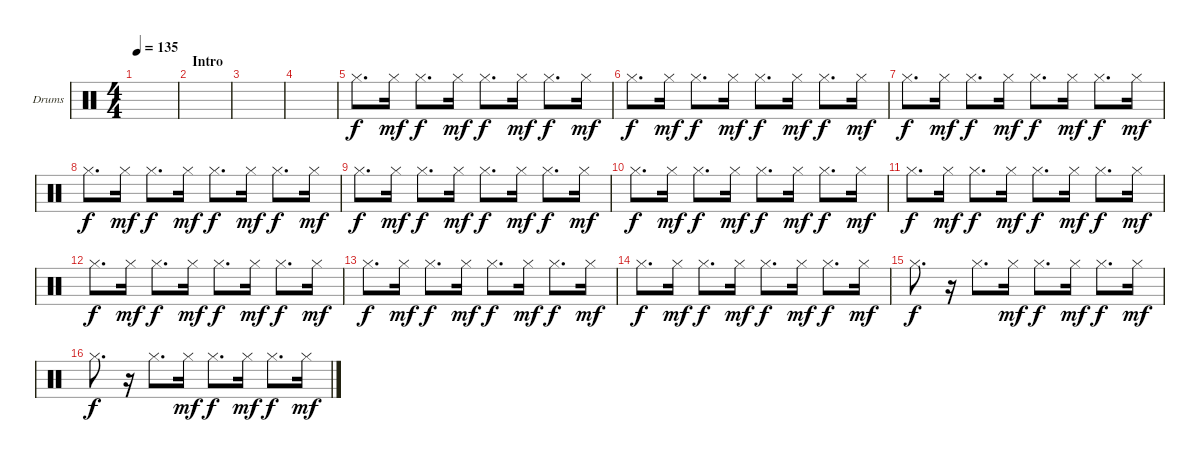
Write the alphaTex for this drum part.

\bracketExtendMode groupsimilarinstruments
\firstSystemTrackNameOrientation horizontal
\otherSystemsTrackNameOrientation horizontal
\track ("HH" "Drums") {instrument percussion}
\staff {score}
\articulation defaults
\ts (4 4)
\tempo 135
\clef neutral
\ks c
|
\section ("" "Intro")
|
|
|
"Hi-Hat (closed)".8{d} "Hi-Hat (closed)".16{dy mf} "Hi-Hat (closed)".8{d dy f} "Hi-Hat (closed)".16{dy mf} "Hi-Hat (closed)".8{d dy f} "Hi-Hat (closed)".16{dy mf} "Hi-Hat (closed)".8{d dy f} "Hi-Hat (closed)".16{dy mf} |
"Hi-Hat (closed)".8{d dy f} "Hi-Hat (closed)".16{dy mf} "Hi-Hat (closed)".8{d dy f} "Hi-Hat (closed)".16{dy mf} "Hi-Hat (closed)".8{d dy f} "Hi-Hat (closed)".16{dy mf} "Hi-Hat (closed)".8{d dy f} "Hi-Hat (closed)".16{dy mf} |
"Hi-Hat (closed)".8{d dy f} "Hi-Hat (closed)".16{dy mf} "Hi-Hat (closed)".8{d dy f} "Hi-Hat (closed)".16{dy mf} "Hi-Hat (closed)".8{d dy f} "Hi-Hat (closed)".16{dy mf} "Hi-Hat (closed)".8{d dy f} "Hi-Hat (closed)".16{dy mf} |
"Hi-Hat (closed)".8{d dy f} "Hi-Hat (closed)".16{dy mf} "Hi-Hat (closed)".8{d dy f} "Hi-Hat (closed)".16{dy mf} "Hi-Hat (closed)".8{d dy f} "Hi-Hat (closed)".16{dy mf} "Hi-Hat (closed)".8{d dy f} "Hi-Hat (closed)".16{dy mf} |
"Hi-Hat (closed)".8{d dy f} "Hi-Hat (closed)".16{dy mf} "Hi-Hat (closed)".8{d dy f} "Hi-Hat (closed)".16{dy mf} "Hi-Hat (closed)".8{d dy f} "Hi-Hat (closed)".16{dy mf} "Hi-Hat (closed)".8{d dy f} "Hi-Hat (closed)".16{dy mf} |
"Hi-Hat (closed)".8{d dy f} "Hi-Hat (closed)".16{dy mf} "Hi-Hat (closed)".8{d dy f} "Hi-Hat (closed)".16{dy mf} "Hi-Hat (closed)".8{d dy f} "Hi-Hat (closed)".16{dy mf} "Hi-Hat (closed)".8{d dy f} "Hi-Hat (closed)".16{dy mf} |
"Hi-Hat (closed)".8{d dy f} "Hi-Hat (closed)".16{dy mf} "Hi-Hat (closed)".8{d dy f} "Hi-Hat (closed)".16{dy mf} "Hi-Hat (closed)".8{d dy f} "Hi-Hat (closed)".16{dy mf} "Hi-Hat (closed)".8{d dy f} "Hi-Hat (closed)".16{dy mf} |
"Hi-Hat (closed)".8{d dy f} "Hi-Hat (closed)".16{dy mf} "Hi-Hat (closed)".8{d dy f} "Hi-Hat (closed)".16{dy mf} "Hi-Hat (closed)".8{d dy f} "Hi-Hat (closed)".16{dy mf} "Hi-Hat (closed)".8{d dy f} "Hi-Hat (closed)".16{dy mf} |
"Hi-Hat (closed)".8{d dy f} "Hi-Hat (closed)".16{dy mf} "Hi-Hat (closed)".8{d dy f} "Hi-Hat (closed)".16{dy mf} "Hi-Hat (closed)".8{d dy f} "Hi-Hat (closed)".16{dy mf} "Hi-Hat (closed)".8{d dy f} "Hi-Hat (closed)".16{dy mf} |
"Hi-Hat (closed)".8{d dy f} "Hi-Hat (closed)".16{dy mf} "Hi-Hat (closed)".8{d dy f} "Hi-Hat (closed)".16{dy mf} "Hi-Hat (closed)".8{d dy f} "Hi-Hat (closed)".16{dy mf} "Hi-Hat (closed)".8{d dy f} "Hi-Hat (closed)".16{dy mf} |
"Hi-Hat (closed)".8{d dy f} r.16 "Hi-Hat (closed)".8{d} "Hi-Hat (closed)".16{dy mf} "Hi-Hat (closed)".8{d dy f} "Hi-Hat (closed)".16{dy mf} "Hi-Hat (closed)".8{d dy f} "Hi-Hat (closed)".16{dy mf} |
"Hi-Hat (closed)".8{d dy f} r.16 "Hi-Hat (closed)".8{d} "Hi-Hat (closed)".16{dy mf} "Hi-Hat (closed)".8{d dy f} "Hi-Hat (closed)".16{dy mf} "Hi-Hat (closed)".8{d dy f} "Hi-Hat (closed)".16{dy mf}
